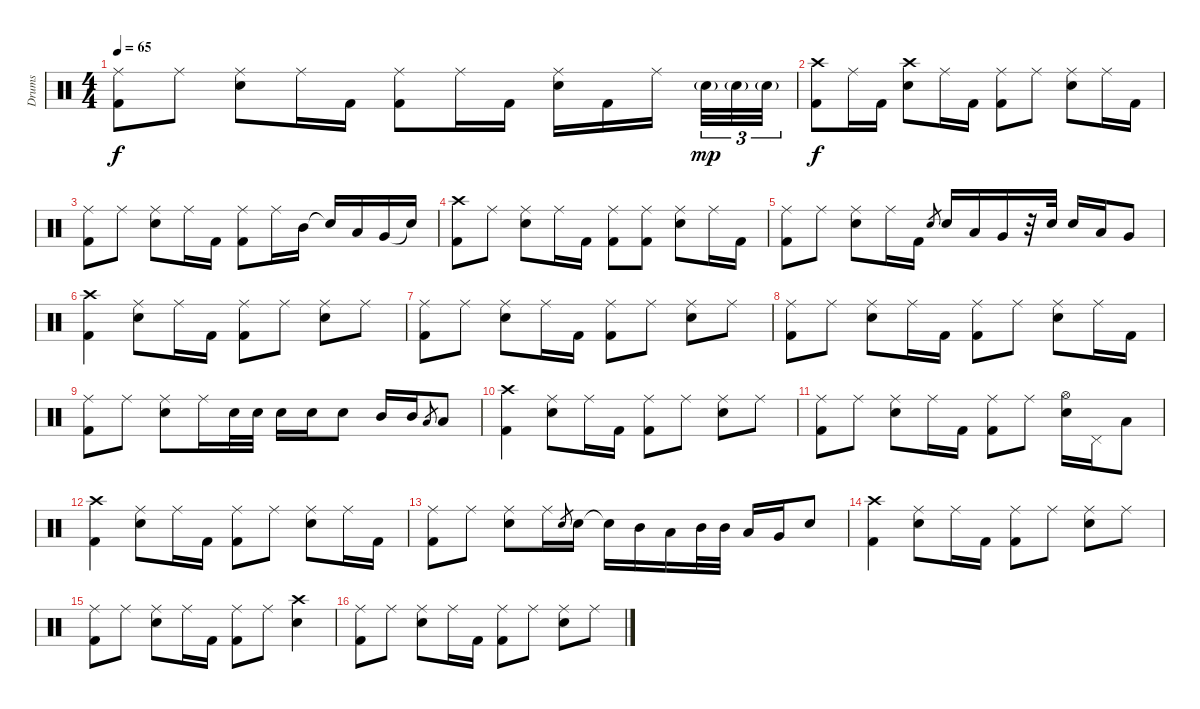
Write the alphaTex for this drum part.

\track ("Drums" "Drums") {instrument percussion}
\staff {score}
\articulation defaults
\ts (4 4)
\tempo 65
\clef neutral
\ks c
("Ride (middle)" "Kick (hit) 2").8{dy f} "Ride (middle)".8 ("Ride (middle)" "Electric Snare (hit)").8 "Ride (middle)".16 "Kick (hit) 2".16 ("Ride (middle)" "Kick (hit) 2").8 "Ride (middle)".16 "Kick (hit) 2".16 ("Ride (middle)" "Electric Snare (hit)").16 "Kick (hit) 2".16 "Ride (middle)".16 "Electric Snare (hit)"{g}.32{tu (3 2) dy mp} "Electric Snare (hit)"{g}.32{tu (3 2)} "Electric Snare (hit)"{g}.32{tu (3 2)} |
("Crash high (hit)" "Kick (hit) 2").8{dy f} "Ride (middle)".16 "Kick (hit) 2".16 ("Crash high (hit)" "Electric Snare (hit)").8 "Ride (middle)".16 "Kick (hit) 2".16 ("Ride (middle)" "Kick (hit) 2").8 "Ride (middle)".8 ("Ride (middle)" "Electric Snare (hit)").8 "Ride (middle)".16 "Kick (hit) 2".16 |
("Ride (middle)" "Kick (hit) 2").8 "Ride (middle)".8 ("Ride (middle)" "Electric Snare (hit)").8 "Ride (middle)".16 "Kick (hit) 2".16 ("Ride (middle)" "Kick (hit) 2").8 "Ride (middle)".16 "Mid Tom (hit)".16 "Snare (hit)"{t}.16 "Low Tom (hit)".16 "Very Low Tom (hit)".16 "Snare (hit)"{t}.16 |
("Crash high (hit)" "Kick (hit) 2").8 "Ride (middle)".8 ("Ride (middle)" "Electric Snare (hit)").8 "Ride (middle)".16 "Kick (hit) 2".16 ("Ride (middle)" "Kick (hit) 2").8 ("Ride (middle)" "Kick (hit) 2").8 ("Ride (middle)" "Electric Snare (hit)").8 "Ride (middle)".16 "Kick (hit) 2".16 |
("Ride (middle)" "Kick (hit) 2").8 "Ride (middle)".8 ("Ride (middle)" "Electric Snare (hit)").8 "Ride (middle)".16 "Kick (hit) 2".16 "Electric Snare (hit)".8{gr} "Electric Snare (hit)".16 "Low Tom (hit)".16 "Very Low Tom (hit)".16 r.32 "Electric Snare (hit)".32 "Electric Snare (hit)".16 "Low Tom (hit)".16 "Very Low Tom (hit)".8 |
("Crash high (hit)" "Kick (hit) 2").4 ("Ride (middle)" "Electric Snare (hit)").8 "Ride (middle)".16 "Kick (hit) 2".16 ("Ride (middle)" "Kick (hit) 2").8 "Ride (middle)".8 ("Ride (middle)" "Electric Snare (hit)").8 "Ride (middle)".8 |
("Ride (middle)" "Kick (hit) 2").8 "Ride (middle)".8 ("Ride (middle)" "Electric Snare (hit)").8 "Ride (middle)".16 "Kick (hit) 2".16 ("Ride (middle)" "Kick (hit) 2").8 "Ride (middle)".8 ("Ride (middle)" "Electric Snare (hit)").8 "Ride (middle)".8 |
("Ride (middle)" "Kick (hit) 2").8 "Ride (middle)".8 ("Ride (middle)" "Electric Snare (hit)").8 "Ride (middle)".16 "Kick (hit) 2".16 ("Ride (middle)" "Kick (hit) 2").8 "Ride (middle)".8 ("Ride (middle)" "Electric Snare (hit)").8 "Ride (middle)".16 "Kick (hit) 2".16 |
("Ride (middle)" "Kick (hit) 2").8 "Ride (middle)".8 ("Ride (middle)" "Electric Snare (hit)").8 "Ride (middle)".16 "Electric Snare (hit)".32 "Electric Snare (hit)".32 "Electric Snare (hit)".16 "Electric Snare (hit)".16 "Electric Snare (hit)".8 "Mid Tom (hit)".16 "Mid Tom (hit)".16 "Low Tom (hit)".8{gr} "Low Tom (hit)".8 |
("Crash high (hit)" "Kick (hit) 2").4 ("Ride (middle)" "Electric Snare (hit)").8 "Ride (middle)".16 "Kick (hit) 2".16 ("Ride (middle)" "Kick (hit) 2").8 "Ride (middle)".8 ("Ride (middle)" "Electric Snare (hit)").8 "Ride (middle)".8 |
("Ride (middle)" "Kick (hit) 2").8 "Ride (middle)".8 ("Ride (middle)" "Electric Snare (hit)").8 "Ride (middle)".16 "Kick (hit) 2".16 ("Ride (middle)" "Kick (hit) 2").8 "Ride (middle)".8 ("Hi-Hat (open)" "Electric Snare (hit)").16 "Pedal Hi-Hat (hit)".16 "Low Tom (hit)".8 |
("Crash high (hit)" "Kick (hit) 2").4 ("Ride (middle)" "Electric Snare (hit)").8 "Ride (middle)".16 "Kick (hit) 2".16 ("Ride (middle)" "Kick (hit) 2").8 "Ride (middle)".8 ("Ride (middle)" "Electric Snare (hit)").8 "Ride (middle)".16 "Kick (hit) 2".16 |
("Ride (middle)" "Kick (hit) 2").8 "Ride (middle)".8 ("Ride (middle)" "Electric Snare (hit)").8 "Ride (middle)".16 "Electric Snare (hit)".8{gr} "Electric Snare (hit)".16 "Electric Snare (hit)"{t}.16 "Mid Tom (hit)".16 "Low Tom (hit)".16 "Mid Tom (hit)".32 "Mid Tom (hit)".32 "Low Tom (hit)".16 "Very Low Tom (hit)".16 "Electric Snare (hit)".8 |
("Crash high (hit)" "Kick (hit) 2").4 ("Ride (middle)" "Electric Snare (hit)").8 "Ride (middle)".16 "Kick (hit) 2".16 ("Ride (middle)" "Kick (hit) 2").8 "Ride (middle)".8 ("Ride (middle)" "Electric Snare (hit)").8 "Ride (middle)".8 |
("Ride (middle)" "Kick (hit) 2").8 "Ride (middle)".8 ("Ride (middle)" "Electric Snare (hit)").8 "Ride (middle)".16 "Kick (hit) 2".16 ("Ride (middle)" "Kick (hit) 2").8 "Ride (middle)".8 ("Crash high (hit)" "Electric Snare (hit)").4 |
("Ride (middle)" "Kick (hit) 2").8 "Ride (middle)".8 ("Ride (middle)" "Electric Snare (hit)").8 "Ride (middle)".16 "Kick (hit) 2".16 ("Ride (middle)" "Kick (hit) 2").8 "Ride (middle)".8 ("Ride (middle)" "Electric Snare (hit)").8 "Ride (middle)".8
